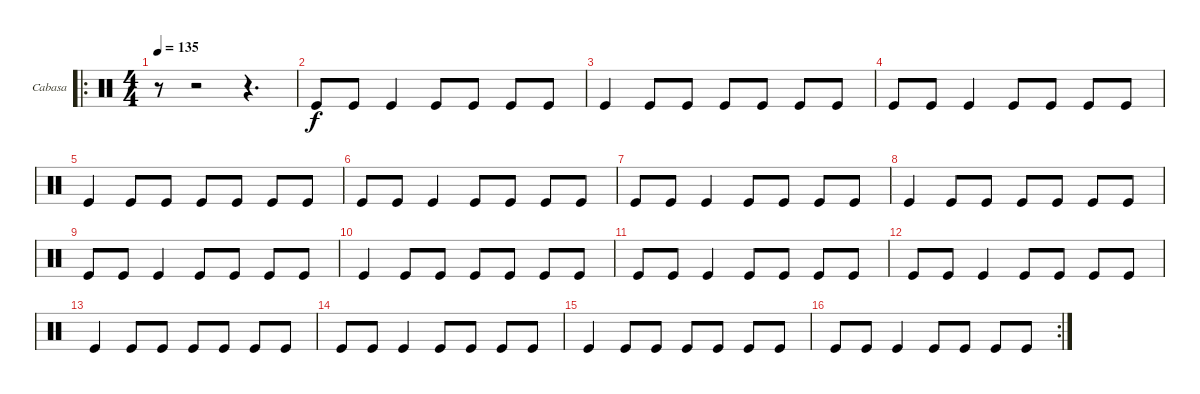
\bracketExtendMode groupsimilarinstruments
\firstSystemTrackNameOrientation horizontal
\otherSystemsTrackNameOrientation horizontal
\track ("Cabasa" "Cabasa") {instrument percussion}
\staff {score}
\articulation defaults
\ro
\ts (4 4)
\tempo 135
\clef neutral
\ks c
r.8{dy f} r.2 r.4{d} |
"Kick (hit)".8 "Kick (hit)".8 "Kick (hit)".4 "Kick (hit)".8 "Kick (hit)".8 "Kick (hit)".8 "Kick (hit)".8 |
"Kick (hit)".4 "Kick (hit)".8 "Kick (hit)".8 "Kick (hit)".8 "Kick (hit)".8 "Kick (hit)".8 "Kick (hit)".8 |
"Kick (hit)".8 "Kick (hit)".8 "Kick (hit)".4 "Kick (hit)".8 "Kick (hit)".8 "Kick (hit)".8 "Kick (hit)".8 |
"Kick (hit)".4 "Kick (hit)".8 "Kick (hit)".8 "Kick (hit)".8 "Kick (hit)".8 "Kick (hit)".8 "Kick (hit)".8 |
"Kick (hit)".8 "Kick (hit)".8 "Kick (hit)".4 "Kick (hit)".8 "Kick (hit)".8 "Kick (hit)".8 "Kick (hit)".8 |
"Kick (hit)".8 "Kick (hit)".8 "Kick (hit)".4 "Kick (hit)".8 "Kick (hit)".8 "Kick (hit)".8 "Kick (hit)".8 |
"Kick (hit)".4 "Kick (hit)".8 "Kick (hit)".8 "Kick (hit)".8 "Kick (hit)".8 "Kick (hit)".8 "Kick (hit)".8 |
"Kick (hit)".8 "Kick (hit)".8 "Kick (hit)".4 "Kick (hit)".8 "Kick (hit)".8 "Kick (hit)".8 "Kick (hit)".8 |
"Kick (hit)".4 "Kick (hit)".8 "Kick (hit)".8 "Kick (hit)".8 "Kick (hit)".8 "Kick (hit)".8 "Kick (hit)".8 |
"Kick (hit)".8 "Kick (hit)".8 "Kick (hit)".4 "Kick (hit)".8 "Kick (hit)".8 "Kick (hit)".8 "Kick (hit)".8 |
"Kick (hit)".8 "Kick (hit)".8 "Kick (hit)".4 "Kick (hit)".8 "Kick (hit)".8 "Kick (hit)".8 "Kick (hit)".8 |
"Kick (hit)".4 "Kick (hit)".8 "Kick (hit)".8 "Kick (hit)".8 "Kick (hit)".8 "Kick (hit)".8 "Kick (hit)".8 |
"Kick (hit)".8 "Kick (hit)".8 "Kick (hit)".4 "Kick (hit)".8 "Kick (hit)".8 "Kick (hit)".8 "Kick (hit)".8 |
"Kick (hit)".4 "Kick (hit)".8 "Kick (hit)".8 "Kick (hit)".8 "Kick (hit)".8 "Kick (hit)".8 "Kick (hit)".8 |
\rc 2 "Kick (hit)".8 "Kick (hit)".8 "Kick (hit)".4 "Kick (hit)".8 "Kick (hit)".8 "Kick (hit)".8 "Kick (hit)".8
